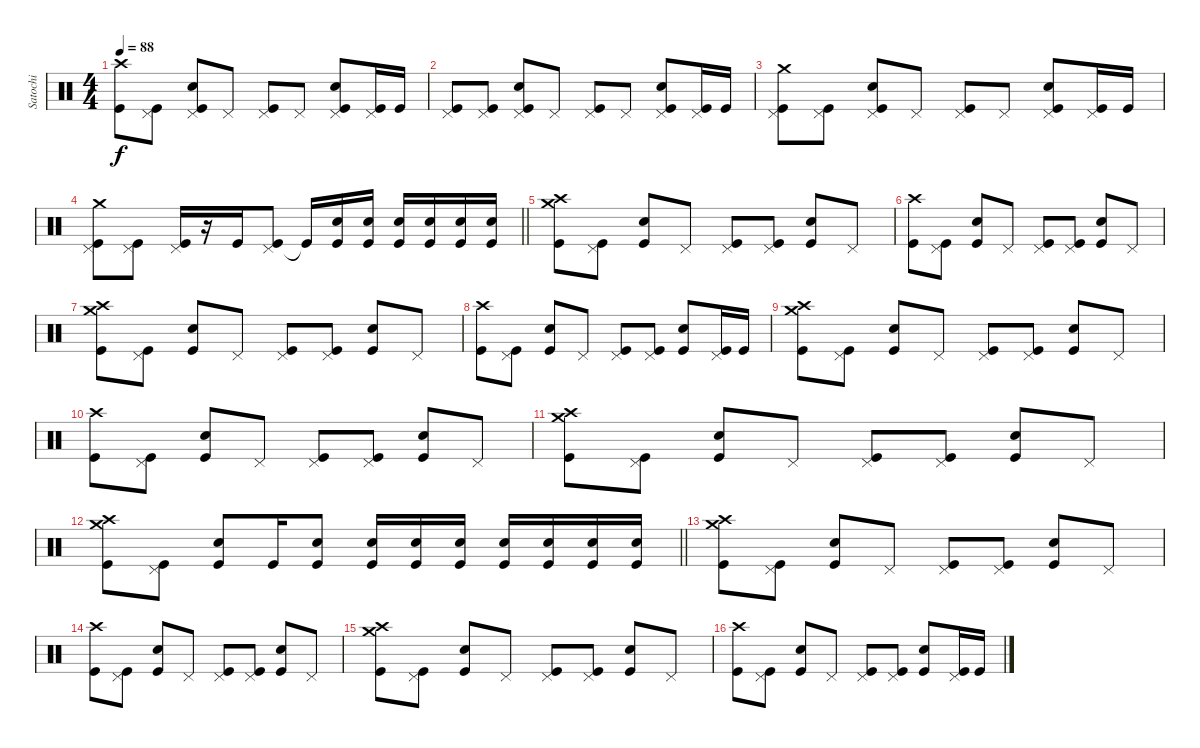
\track ("Satochi" "Satochi") {instrument percussion}
\staff {score}
\articulation defaults
\ts (4 4)
\tempo 88
\clef neutral
\ks c
("Crash high (hit)" "Kick (hit)").8{dy f} ("Pedal Hi-Hat (hit)" "Kick (hit)").8 ("Pedal Hi-Hat (hit)" "Snare (hit) 2" "Kick (hit)").8 "Pedal Hi-Hat (hit)".8 ("Pedal Hi-Hat (hit)" "Kick (hit)").8 "Pedal Hi-Hat (hit)".8 ("Pedal Hi-Hat (hit)" "Snare (hit) 2" "Kick (hit)").8 ("Pedal Hi-Hat (hit)" "Kick (hit)").16 "Kick (hit)".16 |
("Pedal Hi-Hat (hit)" "Kick (hit)").8 ("Pedal Hi-Hat (hit)" "Kick (hit)").8 ("Pedal Hi-Hat (hit)" "Snare (hit) 2" "Kick (hit)").8 "Pedal Hi-Hat (hit)".8 ("Pedal Hi-Hat (hit)" "Kick (hit)").8 "Pedal Hi-Hat (hit)".8 ("Pedal Hi-Hat (hit)" "Snare (hit) 2" "Kick (hit)").8 ("Pedal Hi-Hat (hit)" "Kick (hit)").16 "Kick (hit)".16 |
("Crash medium (hit)" "Pedal Hi-Hat (hit)" "Kick (hit)").8 ("Pedal Hi-Hat (hit)" "Kick (hit)").8 ("Pedal Hi-Hat (hit)" "Snare (hit) 2" "Kick (hit)").8 "Pedal Hi-Hat (hit)".8 ("Pedal Hi-Hat (hit)" "Kick (hit)").8 "Pedal Hi-Hat (hit)".8 ("Pedal Hi-Hat (hit)" "Snare (hit) 2" "Kick (hit)").8 ("Pedal Hi-Hat (hit)" "Kick (hit)").16 "Kick (hit)".16 |
\barLineRight lightlight
("Crash medium (hit)" "Pedal Hi-Hat (hit)" "Kick (hit)").8 ("Pedal Hi-Hat (hit)" "Kick (hit)").8 ("Pedal Hi-Hat (hit)" "Kick (hit)").16 r.16 "Kick (hit)".16 ("Pedal Hi-Hat (hit)" "Kick (hit)").8 "Kick (hit)"{t}.16 ("Snare (hit) 2" "Kick (hit)").16 ("Snare (hit) 2" "Kick (hit)").16 ("Snare (hit) 2" "Kick (hit)").16 ("Snare (hit) 2" "Kick (hit)").16 ("Snare (hit) 2" "Kick (hit)").16 ("Snare (hit) 2" "Kick (hit)").16 |
("Crash medium (hit)" "Crash high (hit)" "Kick (hit)").8 ("Pedal Hi-Hat (hit)" "Kick (hit)").8 ("Snare (hit) 2" "Kick (hit)").8 "Pedal Hi-Hat (hit)".8 ("Pedal Hi-Hat (hit)" "Kick (hit)").8 ("Pedal Hi-Hat (hit)" "Kick (hit)").8 ("Snare (hit) 2" "Kick (hit)").8 "Pedal Hi-Hat (hit)".8 |
("Crash high (hit)" "Kick (hit)").8 ("Pedal Hi-Hat (hit)" "Kick (hit)").8 ("Snare (hit) 2" "Kick (hit)").8 "Pedal Hi-Hat (hit)".8 ("Pedal Hi-Hat (hit)" "Kick (hit)").8 ("Pedal Hi-Hat (hit)" "Kick (hit)").8 ("Snare (hit) 2" "Kick (hit)").8 "Pedal Hi-Hat (hit)".8 |
("Crash medium (hit)" "Crash high (hit)" "Kick (hit)").8 ("Pedal Hi-Hat (hit)" "Kick (hit)").8 ("Snare (hit) 2" "Kick (hit)").8 "Pedal Hi-Hat (hit)".8 ("Pedal Hi-Hat (hit)" "Kick (hit)").8 ("Pedal Hi-Hat (hit)" "Kick (hit)").8 ("Snare (hit) 2" "Kick (hit)").8 "Pedal Hi-Hat (hit)".8 |
("Crash high (hit)" "Kick (hit)").8 ("Pedal Hi-Hat (hit)" "Kick (hit)").8 ("Snare (hit) 2" "Kick (hit)").8 "Pedal Hi-Hat (hit)".8 ("Pedal Hi-Hat (hit)" "Kick (hit)").8 ("Pedal Hi-Hat (hit)" "Kick (hit)").8 ("Snare (hit) 2" "Kick (hit)").8 ("Pedal Hi-Hat (hit)" "Kick (hit)").16 "Kick (hit)".16 |
("Crash medium (hit)" "Crash high (hit)" "Kick (hit)").8 ("Pedal Hi-Hat (hit)" "Kick (hit)").8 ("Snare (hit) 2" "Kick (hit)").8 "Pedal Hi-Hat (hit)".8 ("Pedal Hi-Hat (hit)" "Kick (hit)").8 ("Pedal Hi-Hat (hit)" "Kick (hit)").8 ("Snare (hit) 2" "Kick (hit)").8 "Pedal Hi-Hat (hit)".8 |
("Crash high (hit)" "Kick (hit)").8 ("Pedal Hi-Hat (hit)" "Kick (hit)").8 ("Snare (hit) 2" "Kick (hit)").8 "Pedal Hi-Hat (hit)".8 ("Pedal Hi-Hat (hit)" "Kick (hit)").8 ("Pedal Hi-Hat (hit)" "Kick (hit)").8 ("Snare (hit) 2" "Kick (hit)").8 "Pedal Hi-Hat (hit)".8 |
("Crash medium (hit)" "Crash high (hit)" "Kick (hit)").8 ("Pedal Hi-Hat (hit)" "Kick (hit)").8 ("Snare (hit) 2" "Kick (hit)").8 "Pedal Hi-Hat (hit)".8 ("Pedal Hi-Hat (hit)" "Kick (hit)").8 ("Pedal Hi-Hat (hit)" "Kick (hit)").8 ("Snare (hit) 2" "Kick (hit)").8 "Pedal Hi-Hat (hit)".8 |
\barLineRight lightlight
("Crash medium (hit)" "Crash high (hit)" "Kick (hit)").8 ("Pedal Hi-Hat (hit)" "Kick (hit)").8 ("Snare (hit) 2" "Kick (hit)").8 "Kick (hit)".16 ("Snare (hit) 2" "Kick (hit)").8 ("Snare (hit) 2" "Kick (hit)").16 ("Snare (hit) 2" "Kick (hit)").16 ("Snare (hit) 2" "Kick (hit)").16 ("Snare (hit) 2" "Kick (hit)").16 ("Snare (hit) 2" "Kick (hit)").16 ("Snare (hit) 2" "Kick (hit)").16 ("Snare (hit) 2" "Kick (hit)").16 |
("Crash medium (hit)" "Crash high (hit)" "Kick (hit)").8 ("Pedal Hi-Hat (hit)" "Kick (hit)").8 ("Snare (hit) 2" "Kick (hit)").8 "Pedal Hi-Hat (hit)".8 ("Pedal Hi-Hat (hit)" "Kick (hit)").8 ("Pedal Hi-Hat (hit)" "Kick (hit)").8 ("Snare (hit) 2" "Kick (hit)").8 "Pedal Hi-Hat (hit)".8 |
("Crash high (hit)" "Kick (hit)").8 ("Pedal Hi-Hat (hit)" "Kick (hit)").8 ("Snare (hit) 2" "Kick (hit)").8 "Pedal Hi-Hat (hit)".8 ("Pedal Hi-Hat (hit)" "Kick (hit)").8 ("Pedal Hi-Hat (hit)" "Kick (hit)").8 ("Snare (hit) 2" "Kick (hit)").8 "Pedal Hi-Hat (hit)".8 |
("Crash medium (hit)" "Crash high (hit)" "Kick (hit)").8 ("Pedal Hi-Hat (hit)" "Kick (hit)").8 ("Snare (hit) 2" "Kick (hit)").8 "Pedal Hi-Hat (hit)".8 ("Pedal Hi-Hat (hit)" "Kick (hit)").8 ("Pedal Hi-Hat (hit)" "Kick (hit)").8 ("Snare (hit) 2" "Kick (hit)").8 "Pedal Hi-Hat (hit)".8 |
("Crash high (hit)" "Kick (hit)").8 ("Pedal Hi-Hat (hit)" "Kick (hit)").8 ("Snare (hit) 2" "Kick (hit)").8 "Pedal Hi-Hat (hit)".8 ("Pedal Hi-Hat (hit)" "Kick (hit)").8 ("Pedal Hi-Hat (hit)" "Kick (hit)").8 ("Snare (hit) 2" "Kick (hit)").8 ("Pedal Hi-Hat (hit)" "Kick (hit)").16 "Kick (hit)".16
